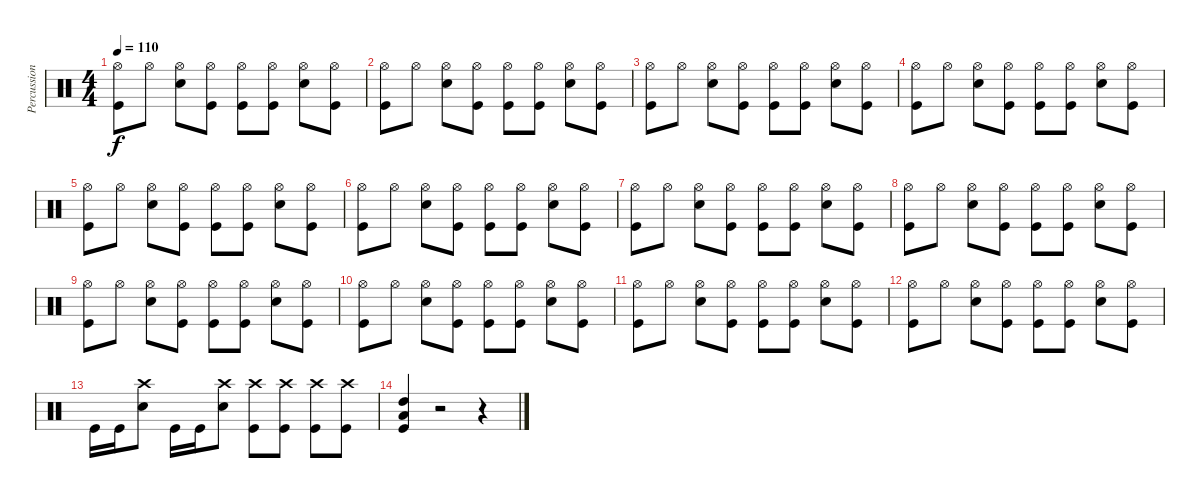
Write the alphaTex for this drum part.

\track ("Percussion" "Percussion") {instrument percussion}
\staff {score}
\articulation defaults
\ts (4 4)
\tempo 110
\clef neutral
\ks c
("Hi-Hat (open)" "Kick (hit)").8{dy f} "Hi-Hat (open)".8 ("Snare (hit) 2" "Hi-Hat (open)").8 ("Hi-Hat (open)" "Kick (hit)").8 ("Hi-Hat (open)" "Kick (hit)").8 ("Hi-Hat (open)" "Kick (hit)").8 ("Snare (hit) 2" "Hi-Hat (open)").8 ("Hi-Hat (open)" "Kick (hit)").8 |
("Hi-Hat (open)" "Kick (hit)").8 "Hi-Hat (open)".8 ("Snare (hit) 2" "Hi-Hat (open)").8 ("Hi-Hat (open)" "Kick (hit)").8 ("Hi-Hat (open)" "Kick (hit)").8 ("Hi-Hat (open)" "Kick (hit)").8 ("Snare (hit) 2" "Hi-Hat (open)").8 ("Hi-Hat (open)" "Kick (hit)").8 |
("Hi-Hat (open)" "Kick (hit)").8 "Hi-Hat (open)".8 ("Snare (hit) 2" "Hi-Hat (open)").8 ("Hi-Hat (open)" "Kick (hit)").8 ("Hi-Hat (open)" "Kick (hit)").8 ("Hi-Hat (open)" "Kick (hit)").8 ("Snare (hit) 2" "Hi-Hat (open)").8 ("Hi-Hat (open)" "Kick (hit)").8 |
("Hi-Hat (open)" "Kick (hit)").8 "Hi-Hat (open)".8 ("Snare (hit) 2" "Hi-Hat (open)").8 ("Hi-Hat (open)" "Kick (hit)").8 ("Hi-Hat (open)" "Kick (hit)").8 ("Hi-Hat (open)" "Kick (hit)").8 ("Snare (hit) 2" "Hi-Hat (open)").8 ("Hi-Hat (open)" "Kick (hit)").8 |
("Hi-Hat (open)" "Kick (hit)").8 "Hi-Hat (open)".8 ("Snare (hit) 2" "Hi-Hat (open)").8 ("Hi-Hat (open)" "Kick (hit)").8 ("Hi-Hat (open)" "Kick (hit)").8 ("Hi-Hat (open)" "Kick (hit)").8 ("Snare (hit) 2" "Hi-Hat (open)").8 ("Hi-Hat (open)" "Kick (hit)").8 |
("Hi-Hat (open)" "Kick (hit)").8 "Hi-Hat (open)".8 ("Snare (hit) 2" "Hi-Hat (open)").8 ("Hi-Hat (open)" "Kick (hit)").8 ("Hi-Hat (open)" "Kick (hit)").8 ("Hi-Hat (open)" "Kick (hit)").8 ("Snare (hit) 2" "Hi-Hat (open)").8 ("Hi-Hat (open)" "Kick (hit)").8 |
("Hi-Hat (open)" "Kick (hit)").8 "Hi-Hat (open)".8 ("Snare (hit) 2" "Hi-Hat (open)").8 ("Hi-Hat (open)" "Kick (hit)").8 ("Hi-Hat (open)" "Kick (hit)").8 ("Hi-Hat (open)" "Kick (hit)").8 ("Snare (hit) 2" "Hi-Hat (open)").8 ("Hi-Hat (open)" "Kick (hit)").8 |
("Hi-Hat (open)" "Kick (hit)").8 "Hi-Hat (open)".8 ("Snare (hit) 2" "Hi-Hat (open)").8 ("Hi-Hat (open)" "Kick (hit)").8 ("Hi-Hat (open)" "Kick (hit)").8 ("Hi-Hat (open)" "Kick (hit)").8 ("Snare (hit) 2" "Hi-Hat (open)").8 ("Hi-Hat (open)" "Kick (hit)").8 |
("Hi-Hat (open)" "Kick (hit)").8 "Hi-Hat (open)".8 ("Snare (hit) 2" "Hi-Hat (open)").8 ("Hi-Hat (open)" "Kick (hit)").8 ("Hi-Hat (open)" "Kick (hit)").8 ("Hi-Hat (open)" "Kick (hit)").8 ("Snare (hit) 2" "Hi-Hat (open)").8 ("Hi-Hat (open)" "Kick (hit)").8 |
("Hi-Hat (open)" "Kick (hit)").8 "Hi-Hat (open)".8 ("Snare (hit) 2" "Hi-Hat (open)").8 ("Hi-Hat (open)" "Kick (hit)").8 ("Hi-Hat (open)" "Kick (hit)").8 ("Hi-Hat (open)" "Kick (hit)").8 ("Snare (hit) 2" "Hi-Hat (open)").8 ("Hi-Hat (open)" "Kick (hit)").8 |
("Hi-Hat (open)" "Kick (hit)").8 "Hi-Hat (open)".8 ("Snare (hit) 2" "Hi-Hat (open)").8 ("Hi-Hat (open)" "Kick (hit)").8 ("Hi-Hat (open)" "Kick (hit)").8 ("Hi-Hat (open)" "Kick (hit)").8 ("Snare (hit) 2" "Hi-Hat (open)").8 ("Hi-Hat (open)" "Kick (hit)").8 |
("Hi-Hat (open)" "Kick (hit)").8 "Hi-Hat (open)".8 ("Snare (hit) 2" "Hi-Hat (open)").8 ("Hi-Hat (open)" "Kick (hit)").8 ("Hi-Hat (open)" "Kick (hit)").8 ("Hi-Hat (open)" "Kick (hit)").8 ("Snare (hit) 2" "Hi-Hat (open)").8 ("Hi-Hat (open)" "Kick (hit)").8 |
"Kick (hit)".16 "Kick (hit)".16 ("Crash high (hit)" "Snare (hit) 2").8 "Kick (hit)".16 "Kick (hit)".16 ("Crash high (hit)" "Snare (hit) 2").8 ("Crash high (hit)" "Kick (hit)").8 ("Crash high (hit)" "Kick (hit)").8 ("Crash high (hit)" "Kick (hit)").8 ("Crash high (hit)" "Kick (hit)").8 |
("Kick (hit)" "Low Tom (hit)" "High Tom (hit)").4 r.2 r.4
